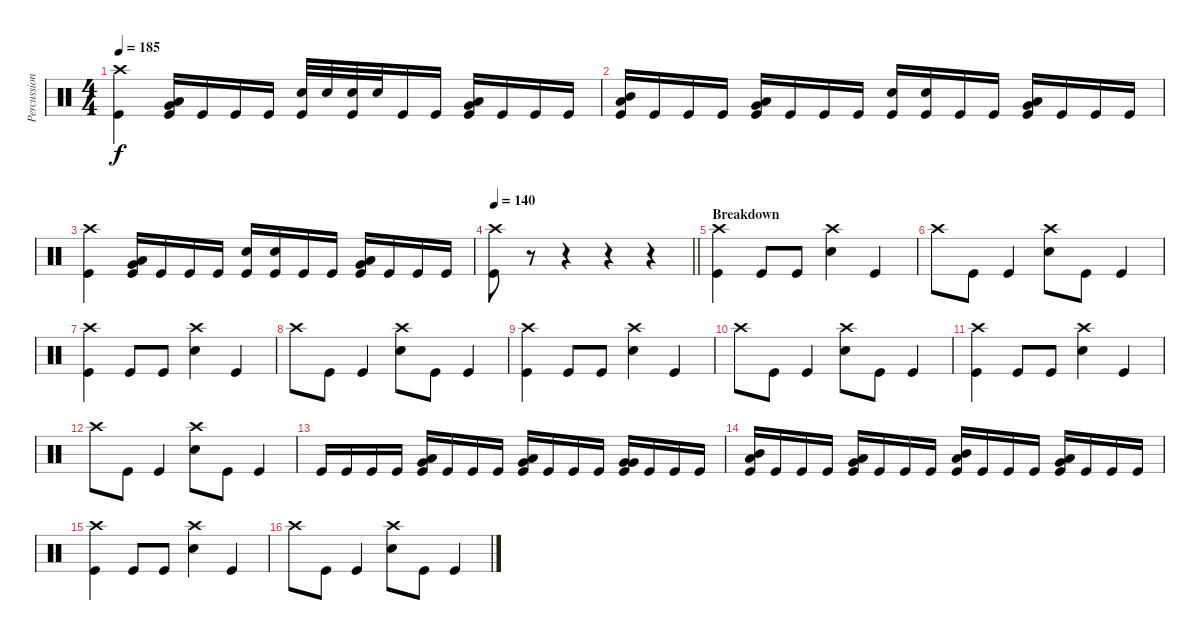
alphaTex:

\track ("Percussion" "Percussion") {instrument percussion}
\staff {score}
\articulation defaults
\ts (4 4)
\tempo 185
\clef neutral
\ks c
("Crash high (hit)" "Kick (hit)").4{dy f} ("Very Low Tom (hit)" "Low Tom (hit)" "Kick (hit)").16 "Kick (hit)".16 "Kick (hit)".16 "Kick (hit)".16 ("Snare (hit) 2" "Kick (hit)").32 "Snare (hit) 2".32 ("Snare (hit) 2" "Kick (hit)").32 "Snare (hit) 2".32 "Kick (hit)".16 "Kick (hit)".16 ("Low Tom (hit)" "Very Low Tom (hit)" "Kick (hit)").16 "Kick (hit)".16 "Kick (hit)".16 "Kick (hit)".16 |
("Mid Tom (hit)" "Low Tom (hit)" "Kick (hit)").16 "Kick (hit)".16 "Kick (hit)".16 "Kick (hit)".16 ("Low Tom (hit)" "Very Low Tom (hit)" "Kick (hit)").16 "Kick (hit)".16 "Kick (hit)".16 "Kick (hit)".16 ("Snare (hit) 2" "Kick (hit)").16 ("Snare (hit) 2" "Kick (hit)").16 "Kick (hit)".16 "Kick (hit)".16 ("Very Low Tom (hit)" "Low Tom (hit)" "Kick (hit)").16 "Kick (hit)".16 "Kick (hit)".16 "Kick (hit)".16 |
("Crash high (hit)" "Kick (hit)").4 ("Very Low Tom (hit)" "Low Tom (hit)" "Kick (hit)").16 "Kick (hit)".16 "Kick (hit)".16 "Kick (hit)".16 ("Snare (hit) 2" "Kick (hit)").16 ("Snare (hit) 2" "Kick (hit)").16 "Kick (hit)".16 "Kick (hit)".16 ("Low Tom (hit)" "Very Low Tom (hit)" "Kick (hit)").16 "Kick (hit)".16 "Kick (hit)".16 "Kick (hit)".16 |
\tempo 140
\barLineRight lightlight
("Crash high (hit)" "Kick (hit)").8 r.8 r.4 r.4 r.4 |
\section ("" "Breakdown")
("Crash high (hit)" "Kick (hit)").4 "Kick (hit)".8 "Kick (hit)".8 ("Crash high (hit)" "Snare (hit) 2").4 "Kick (hit)".4 |
"Crash high (hit)".8 "Kick (hit)".8 "Kick (hit)".4 ("Crash high (hit)" "Snare (hit) 2").8 "Kick (hit)".8 "Kick (hit)".4 |
("Crash high (hit)" "Kick (hit)").4 "Kick (hit)".8 "Kick (hit)".8 ("Crash high (hit)" "Snare (hit) 2").4 "Kick (hit)".4 |
"Crash high (hit)".8 "Kick (hit)".8 "Kick (hit)".4 ("Crash high (hit)" "Snare (hit) 2").8 "Kick (hit)".8 "Kick (hit)".4 |
("Crash high (hit)" "Kick (hit)").4 "Kick (hit)".8 "Kick (hit)".8 ("Crash high (hit)" "Snare (hit) 2").4 "Kick (hit)".4 |
"Crash high (hit)".8 "Kick (hit)".8 "Kick (hit)".4 ("Crash high (hit)" "Snare (hit) 2").8 "Kick (hit)".8 "Kick (hit)".4 |
("Crash high (hit)" "Kick (hit)").4 "Kick (hit)".8 "Kick (hit)".8 ("Crash high (hit)" "Snare (hit) 2").4 "Kick (hit)".4 |
"Crash high (hit)".8 "Kick (hit)".8 "Kick (hit)".4 ("Crash high (hit)" "Snare (hit) 2").8 "Kick (hit)".8 "Kick (hit)".4 |
"Kick (hit)".16 "Kick (hit)".16 "Kick (hit)".16 "Kick (hit)".16 ("Low Tom (hit)" "Very Low Tom (hit)" "Kick (hit)").16 "Kick (hit)".16 "Kick (hit)".16 "Kick (hit)".16 ("Very Low Tom (hit)" "Low Tom (hit)" "Kick (hit)").16 "Kick (hit)".16 "Kick (hit)".16 "Kick (hit)".16 ("Very Low Tom (hit)" "Very Low Tom (hit)" "Kick (hit)").16 "Kick (hit)".16 "Kick (hit)".16 "Kick (hit)".16 |
("Low Tom (hit)" "Mid Tom (hit)" "Kick (hit)").16 "Kick (hit)".16 "Kick (hit)".16 "Kick (hit)".16 ("Low Tom (hit)" "Very Low Tom (hit)" "Kick (hit)").16 "Kick (hit)".16 "Kick (hit)".16 "Kick (hit)".16 ("Mid Tom (hit)" "Low Tom (hit)" "Kick (hit)").16 "Kick (hit)".16 "Kick (hit)".16 "Kick (hit)".16 ("Low Tom (hit)" "Very Low Tom (hit)" "Kick (hit)").16 "Kick (hit)".16 "Kick (hit)".16 "Kick (hit)".16 |
("Crash high (hit)" "Kick (hit)").4 "Kick (hit)".8 "Kick (hit)".8 ("Crash high (hit)" "Snare (hit) 2").4 "Kick (hit)".4 |
"Crash high (hit)".8 "Kick (hit)".8 "Kick (hit)".4 ("Crash high (hit)" "Snare (hit) 2").8 "Kick (hit)".8 "Kick (hit)".4
